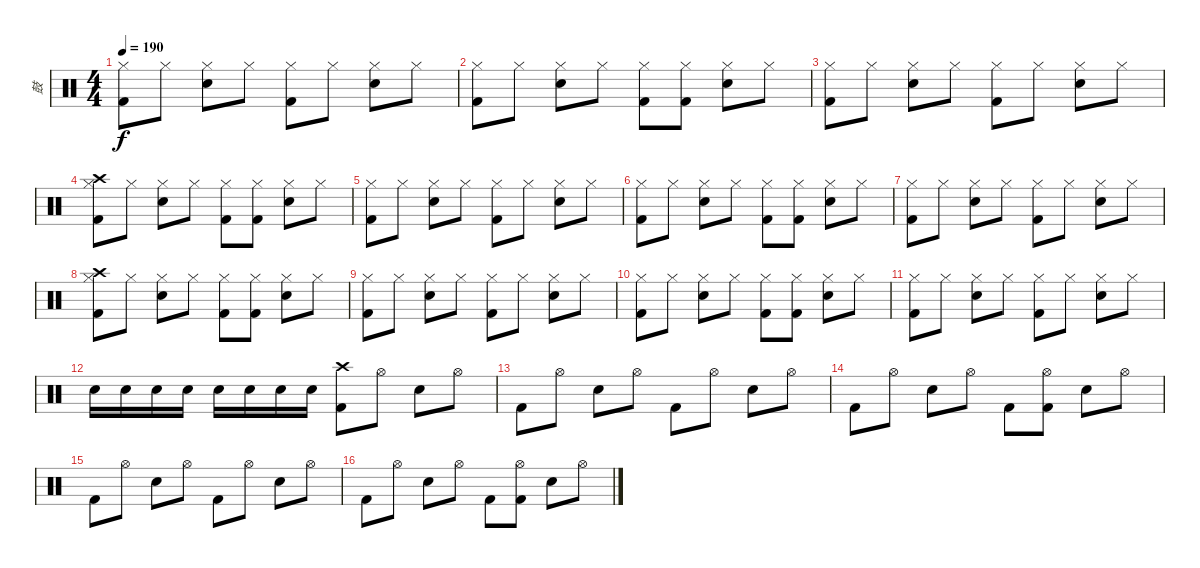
\track ("鼓" "鼓") {instrument percussion}
\staff {score}
\articulation defaults
\ts (4 4)
\tempo 190
\clef neutral
\ks c
("Hi-Hat (closed)" "Kick (hit) 2").8{dy f} "Hi-Hat (closed)".8 ("Hi-Hat (closed)" "Snare (hit) 2").8 "Hi-Hat (closed)".8 ("Hi-Hat (closed)" "Kick (hit) 2").8 "Hi-Hat (closed)".8 ("Hi-Hat (closed)" "Snare (hit) 2").8 "Hi-Hat (closed)".8 |
("Hi-Hat (closed)" "Kick (hit) 2").8 "Hi-Hat (closed)".8 ("Hi-Hat (closed)" "Snare (hit) 2").8 "Hi-Hat (closed)".8 ("Hi-Hat (closed)" "Kick (hit) 2").8 ("Hi-Hat (closed)" "Kick (hit) 2").8 ("Hi-Hat (closed)" "Snare (hit) 2").8 "Hi-Hat (closed)".8 |
("Hi-Hat (closed)" "Kick (hit) 2").8 "Hi-Hat (closed)".8 ("Hi-Hat (closed)" "Snare (hit) 2").8 "Hi-Hat (closed)".8 ("Hi-Hat (closed)" "Kick (hit) 2").8 "Hi-Hat (closed)".8 ("Hi-Hat (closed)" "Snare (hit) 2").8 "Hi-Hat (closed)".8 |
("Crash high (hit)" "Hi-Hat (closed)" "Kick (hit) 2").8 "Hi-Hat (closed)".8 ("Hi-Hat (closed)" "Snare (hit) 2").8 "Hi-Hat (closed)".8 ("Hi-Hat (closed)" "Kick (hit) 2").8 ("Hi-Hat (closed)" "Kick (hit) 2").8 ("Hi-Hat (closed)" "Snare (hit) 2").8 "Hi-Hat (closed)".8 |
("Hi-Hat (closed)" "Kick (hit) 2").8 "Hi-Hat (closed)".8 ("Hi-Hat (closed)" "Snare (hit) 2").8 "Hi-Hat (closed)".8 ("Hi-Hat (closed)" "Kick (hit) 2").8 "Hi-Hat (closed)".8 ("Hi-Hat (closed)" "Snare (hit) 2").8 "Hi-Hat (closed)".8 |
("Hi-Hat (closed)" "Kick (hit) 2").8 "Hi-Hat (closed)".8 ("Hi-Hat (closed)" "Snare (hit) 2").8 "Hi-Hat (closed)".8 ("Hi-Hat (closed)" "Kick (hit) 2").8 ("Hi-Hat (closed)" "Kick (hit) 2").8 ("Hi-Hat (closed)" "Snare (hit) 2").8 "Hi-Hat (closed)".8 |
("Hi-Hat (closed)" "Kick (hit) 2").8 "Hi-Hat (closed)".8 ("Hi-Hat (closed)" "Snare (hit) 2").8 "Hi-Hat (closed)".8 ("Hi-Hat (closed)" "Kick (hit) 2").8 "Hi-Hat (closed)".8 ("Hi-Hat (closed)" "Snare (hit) 2").8 "Hi-Hat (closed)".8 |
("Crash high (hit)" "Hi-Hat (closed)" "Kick (hit) 2").8 "Hi-Hat (closed)".8 ("Hi-Hat (closed)" "Snare (hit) 2").8 "Hi-Hat (closed)".8 ("Hi-Hat (closed)" "Kick (hit) 2").8 ("Hi-Hat (closed)" "Kick (hit) 2").8 ("Hi-Hat (closed)" "Snare (hit) 2").8 "Hi-Hat (closed)".8 |
("Hi-Hat (closed)" "Kick (hit) 2").8 "Hi-Hat (closed)".8 ("Hi-Hat (closed)" "Snare (hit) 2").8 "Hi-Hat (closed)".8 ("Hi-Hat (closed)" "Kick (hit) 2").8 "Hi-Hat (closed)".8 ("Hi-Hat (closed)" "Snare (hit) 2").8 "Hi-Hat (closed)".8 |
("Hi-Hat (closed)" "Kick (hit) 2").8 "Hi-Hat (closed)".8 ("Hi-Hat (closed)" "Snare (hit) 2").8 "Hi-Hat (closed)".8 ("Hi-Hat (closed)" "Kick (hit) 2").8 ("Hi-Hat (closed)" "Kick (hit) 2").8 ("Hi-Hat (closed)" "Snare (hit) 2").8 "Hi-Hat (closed)".8 |
("Hi-Hat (closed)" "Kick (hit) 2").8 "Hi-Hat (closed)".8 ("Hi-Hat (closed)" "Snare (hit) 2").8 "Hi-Hat (closed)".8 ("Hi-Hat (closed)" "Kick (hit) 2").8 "Hi-Hat (closed)".8 ("Hi-Hat (closed)" "Snare (hit) 2").8 "Hi-Hat (closed)".8 |
"Snare (hit) 2".16 "Snare (hit) 2".16 "Snare (hit) 2".16 "Snare (hit) 2".16 "Snare (hit) 2".16 "Snare (hit) 2".16 "Snare (hit) 2".16 "Snare (hit) 2".16 ("Crash high (hit)" "Kick (hit) 2").8 "Hi-Hat (open)".8 "Snare (hit) 2".8 "Hi-Hat (open)".8 |
"Kick (hit) 2".8 "Hi-Hat (open)".8 "Snare (hit) 2".8 "Hi-Hat (open)".8 "Kick (hit) 2".8 "Hi-Hat (open)".8 "Snare (hit) 2".8 "Hi-Hat (open)".8 |
"Kick (hit) 2".8 "Hi-Hat (open)".8 "Snare (hit) 2".8 "Hi-Hat (open)".8 "Kick (hit) 2".8 ("Hi-Hat (open)" "Kick (hit) 2").8 "Snare (hit) 2".8 "Hi-Hat (open)".8 |
"Kick (hit) 2".8 "Hi-Hat (open)".8 "Snare (hit) 2".8 "Hi-Hat (open)".8 "Kick (hit) 2".8 "Hi-Hat (open)".8 "Snare (hit) 2".8 "Hi-Hat (open)".8 |
"Kick (hit) 2".8 "Hi-Hat (open)".8 "Snare (hit) 2".8 "Hi-Hat (open)".8 "Kick (hit) 2".8 ("Hi-Hat (open)" "Kick (hit) 2").8 "Snare (hit) 2".8 "Hi-Hat (open)".8
